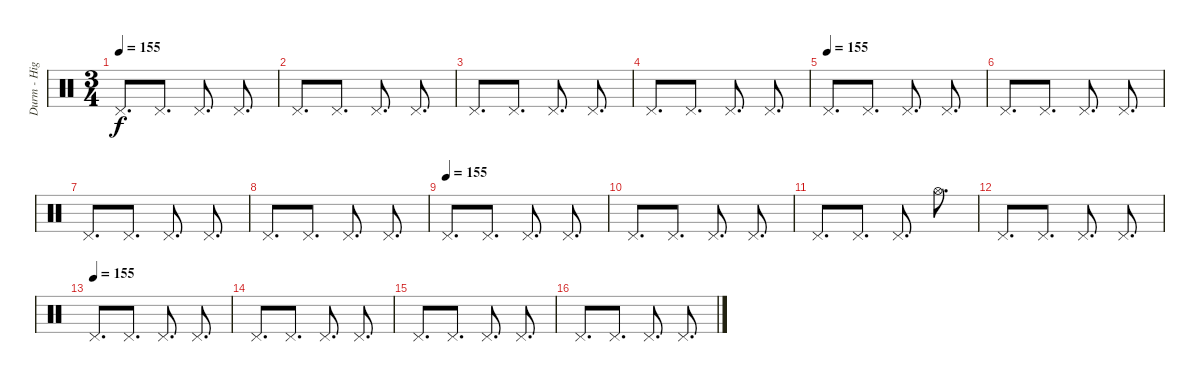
\track ("Durm - High Hat" "Durm - Hig") {instrument percussion}
\staff {score}
\articulation defaults
\ts (3 4)
\tempo 155
\clef neutral
\ks c "Pedal Hi-Hat (hit)".8{d dy f} "Pedal Hi-Hat (hit)".8{d} "Pedal Hi-Hat (hit)".8{d} "Pedal Hi-Hat (hit)".8{d}
|
"Pedal Hi-Hat (hit)".8{d} "Pedal Hi-Hat (hit)".8{d} "Pedal Hi-Hat (hit)".8{d} "Pedal Hi-Hat (hit)".8{d} |
"Pedal Hi-Hat (hit)".8{d} "Pedal Hi-Hat (hit)".8{d} "Pedal Hi-Hat (hit)".8{d} "Pedal Hi-Hat (hit)".8{d} |
"Pedal Hi-Hat (hit)".8{d} "Pedal Hi-Hat (hit)".8{d} "Pedal Hi-Hat (hit)".8{d} "Pedal Hi-Hat (hit)".8{d} |
\tempo (155)
"Pedal Hi-Hat (hit)".8{d} "Pedal Hi-Hat (hit)".8{d} "Pedal Hi-Hat (hit)".8{d} "Pedal Hi-Hat (hit)".8{d} |
"Pedal Hi-Hat (hit)".8{d} "Pedal Hi-Hat (hit)".8{d} "Pedal Hi-Hat (hit)".8{d} "Pedal Hi-Hat (hit)".8{d} |
"Pedal Hi-Hat (hit)".8{d} "Pedal Hi-Hat (hit)".8{d} "Pedal Hi-Hat (hit)".8{d} "Pedal Hi-Hat (hit)".8{d} |
"Pedal Hi-Hat (hit)".8{d} "Pedal Hi-Hat (hit)".8{d} "Pedal Hi-Hat (hit)".8{d} "Pedal Hi-Hat (hit)".8{d} |
\tempo (155)
"Pedal Hi-Hat (hit)".8{d} "Pedal Hi-Hat (hit)".8{d} "Pedal Hi-Hat (hit)".8{d} "Pedal Hi-Hat (hit)".8{d} |
"Pedal Hi-Hat (hit)".8{d} "Pedal Hi-Hat (hit)".8{d} "Pedal Hi-Hat (hit)".8{d} "Pedal Hi-Hat (hit)".8{d} |
"Pedal Hi-Hat (hit)".8{d} "Pedal Hi-Hat (hit)".8{d} "Pedal Hi-Hat (hit)".8{d} "Hi-Hat (open)".8{d} |
"Pedal Hi-Hat (hit)".8{d} "Pedal Hi-Hat (hit)".8{d} "Pedal Hi-Hat (hit)".8{d} "Pedal Hi-Hat (hit)".8{d} |
\tempo (155)
"Pedal Hi-Hat (hit)".8{d} "Pedal Hi-Hat (hit)".8{d} "Pedal Hi-Hat (hit)".8{d} "Pedal Hi-Hat (hit)".8{d} |
"Pedal Hi-Hat (hit)".8{d} "Pedal Hi-Hat (hit)".8{d} "Pedal Hi-Hat (hit)".8{d} "Pedal Hi-Hat (hit)".8{d} |
"Pedal Hi-Hat (hit)".8{d} "Pedal Hi-Hat (hit)".8{d} "Pedal Hi-Hat (hit)".8{d} "Pedal Hi-Hat (hit)".8{d} |
"Pedal Hi-Hat (hit)".8{d} "Pedal Hi-Hat (hit)".8{d} "Pedal Hi-Hat (hit)".8{d} "Pedal Hi-Hat (hit)".8{d}
